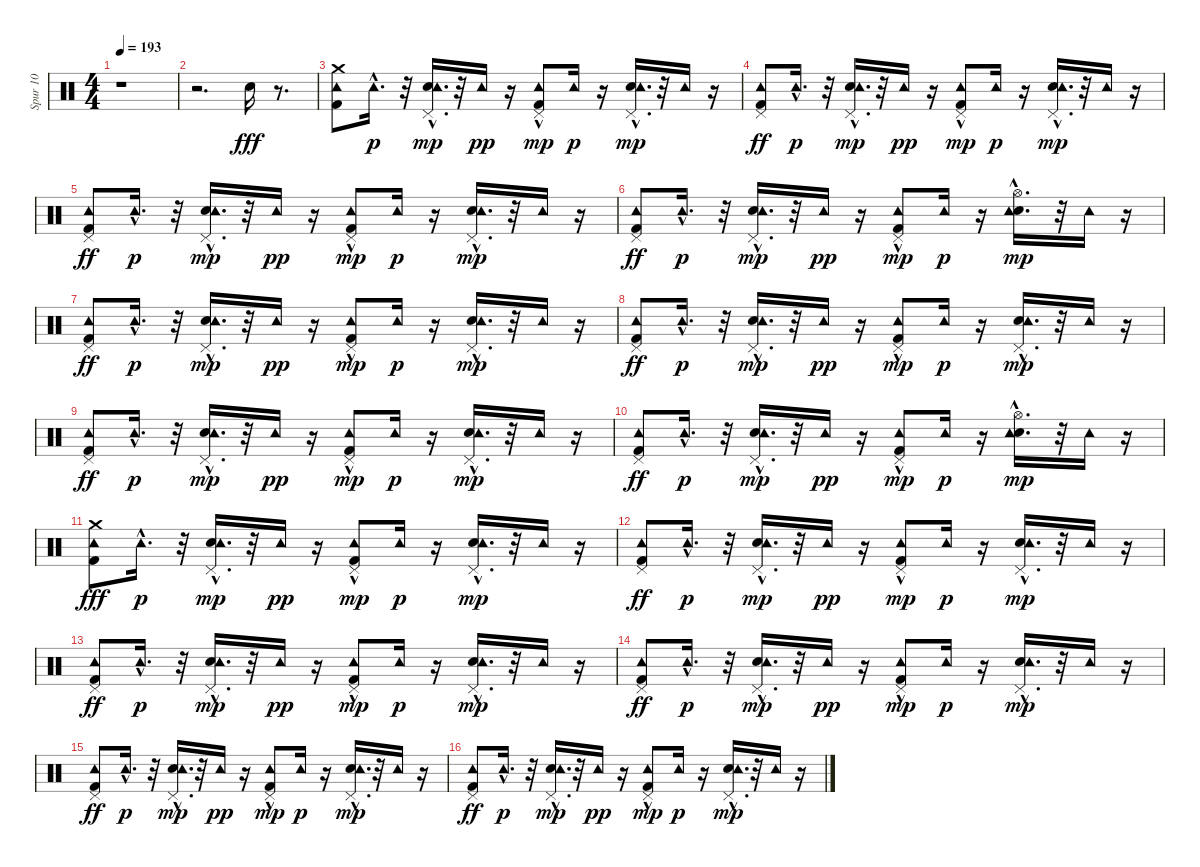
\track ("Spur 10" "Spur 10") {instrument percussion}
\staff {score}
\articulation defaults
\ts (4 4)
\tempo 193
\clef neutral
\ks c
r.1{dy fff} |
r.2{d} "Snare (hit) 2".16 r.8{d} |
("Tambourine (hit)" "Kick (hit) 2" "Crash medium (hit)").8 "Tambourine (hit)"{hac}.16{d dy p} r.32 ("Pedal Hi-Hat (hit)" "Snare (hit) 2"{hac} "Tambourine (hit)").16{d dy mp} r.32 "Tambourine (hit)".16{dy pp} r.16 ("Kick (hit) 2" "Pedal Hi-Hat (hit)" "Tambourine (hit)"{hac}).8{dy mp} "Tambourine (hit)".16{dy p} r.16 ("Snare (hit) 2"{hac} "Pedal Hi-Hat (hit)"{hac} "Tambourine (hit)").16{d dy mp} r.32 "Tambourine (hit)".16 r.16 |
("Tambourine (hit)" "Kick (hit) 2" "Pedal Hi-Hat (hit)").8{dy ff} "Tambourine (hit)"{hac}.16{d dy p} r.32 ("Pedal Hi-Hat (hit)" "Snare (hit) 2"{hac} "Tambourine (hit)").16{d dy mp} r.32 "Tambourine (hit)".16{dy pp} r.16 ("Kick (hit) 2" "Pedal Hi-Hat (hit)" "Tambourine (hit)"{hac}).8{dy mp} "Tambourine (hit)".16{dy p} r.16 ("Snare (hit) 2"{hac} "Pedal Hi-Hat (hit)"{hac} "Tambourine (hit)").16{d dy mp} r.32 "Tambourine (hit)".16 r.16 |
("Tambourine (hit)" "Kick (hit) 2" "Pedal Hi-Hat (hit)").8{dy ff} "Tambourine (hit)"{hac}.16{d dy p} r.32 ("Pedal Hi-Hat (hit)" "Snare (hit) 2"{hac} "Tambourine (hit)").16{d dy mp} r.32 "Tambourine (hit)".16{dy pp} r.16 ("Kick (hit) 2" "Pedal Hi-Hat (hit)" "Tambourine (hit)"{hac}).8{dy mp} "Tambourine (hit)".16{dy p} r.16 ("Snare (hit) 2"{hac} "Pedal Hi-Hat (hit)"{hac} "Tambourine (hit)").16{d dy mp} r.32 "Tambourine (hit)".16 r.16 |
("Tambourine (hit)" "Kick (hit) 2" "Pedal Hi-Hat (hit)").8{dy ff} "Tambourine (hit)"{hac}.16{d dy p} r.32 ("Pedal Hi-Hat (hit)" "Snare (hit) 2"{hac} "Tambourine (hit)").16{d dy mp} r.32 "Tambourine (hit)".16{dy pp} r.16 ("Kick (hit) 2" "Pedal Hi-Hat (hit)" "Tambourine (hit)"{hac}).8{dy mp} "Tambourine (hit)".16{dy p} r.16 ("Snare (hit) 2"{hac} "Hi-Hat (open)"{hac} "Tambourine (hit)").16{d dy mp} r.32 "Tambourine (hit)".16 r.16 |
("Tambourine (hit)" "Kick (hit) 2" "Pedal Hi-Hat (hit)").8{dy ff} "Tambourine (hit)"{hac}.16{d dy p} r.32 ("Pedal Hi-Hat (hit)" "Snare (hit) 2"{hac} "Tambourine (hit)").16{d dy mp} r.32 "Tambourine (hit)".16{dy pp} r.16 ("Kick (hit) 2" "Pedal Hi-Hat (hit)" "Tambourine (hit)"{hac}).8{dy mp} "Tambourine (hit)".16{dy p} r.16 ("Snare (hit) 2"{hac} "Pedal Hi-Hat (hit)"{hac} "Tambourine (hit)").16{d dy mp} r.32 "Tambourine (hit)".16 r.16 |
("Tambourine (hit)" "Kick (hit) 2" "Pedal Hi-Hat (hit)").8{dy ff} "Tambourine (hit)"{hac}.16{d dy p} r.32 ("Pedal Hi-Hat (hit)" "Snare (hit) 2"{hac} "Tambourine (hit)").16{d dy mp} r.32 "Tambourine (hit)".16{dy pp} r.16 ("Kick (hit) 2" "Pedal Hi-Hat (hit)" "Tambourine (hit)"{hac}).8{dy mp} "Tambourine (hit)".16{dy p} r.16 ("Snare (hit) 2"{hac} "Pedal Hi-Hat (hit)"{hac} "Tambourine (hit)").16{d dy mp} r.32 "Tambourine (hit)".16 r.16 |
("Tambourine (hit)" "Kick (hit) 2" "Pedal Hi-Hat (hit)").8{dy ff} "Tambourine (hit)"{hac}.16{d dy p} r.32 ("Pedal Hi-Hat (hit)" "Snare (hit) 2"{hac} "Tambourine (hit)").16{d dy mp} r.32 "Tambourine (hit)".16{dy pp} r.16 ("Kick (hit) 2" "Pedal Hi-Hat (hit)" "Tambourine (hit)"{hac}).8{dy mp} "Tambourine (hit)".16{dy p} r.16 ("Snare (hit) 2"{hac} "Pedal Hi-Hat (hit)"{hac} "Tambourine (hit)").16{d dy mp} r.32 "Tambourine (hit)".16 r.16 |
("Tambourine (hit)" "Kick (hit) 2" "Pedal Hi-Hat (hit)").8{dy ff} "Tambourine (hit)"{hac}.16{d dy p} r.32 ("Pedal Hi-Hat (hit)" "Snare (hit) 2"{hac} "Tambourine (hit)").16{d dy mp} r.32 "Tambourine (hit)".16{dy pp} r.16 ("Kick (hit) 2" "Pedal Hi-Hat (hit)" "Tambourine (hit)"{hac}).8{dy mp} "Tambourine (hit)".16{dy p} r.16 ("Snare (hit) 2"{hac} "Hi-Hat (open)"{hac} "Tambourine (hit)").16{d dy mp} r.32 "Tambourine (hit)".16 r.16 |
("Tambourine (hit)" "Kick (hit) 2" "Crash medium (hit)").8{dy fff} "Tambourine (hit)"{hac}.16{d dy p} r.32 ("Pedal Hi-Hat (hit)" "Snare (hit) 2"{hac} "Tambourine (hit)").16{d dy mp} r.32 "Tambourine (hit)".16{dy pp} r.16 ("Kick (hit) 2" "Pedal Hi-Hat (hit)" "Tambourine (hit)"{hac}).8{dy mp} "Tambourine (hit)".16{dy p} r.16 ("Snare (hit) 2"{hac} "Pedal Hi-Hat (hit)"{hac} "Tambourine (hit)").16{d dy mp} r.32 "Tambourine (hit)".16 r.16 |
("Tambourine (hit)" "Kick (hit) 2" "Pedal Hi-Hat (hit)").8{dy ff} "Tambourine (hit)"{hac}.16{d dy p} r.32 ("Pedal Hi-Hat (hit)" "Snare (hit) 2"{hac} "Tambourine (hit)").16{d dy mp} r.32 "Tambourine (hit)".16{dy pp} r.16 ("Kick (hit) 2" "Pedal Hi-Hat (hit)" "Tambourine (hit)"{hac}).8{dy mp} "Tambourine (hit)".16{dy p} r.16 ("Snare (hit) 2"{hac} "Pedal Hi-Hat (hit)"{hac} "Tambourine (hit)").16{d dy mp} r.32 "Tambourine (hit)".16 r.16 |
("Tambourine (hit)" "Kick (hit) 2" "Pedal Hi-Hat (hit)").8{dy ff} "Tambourine (hit)"{hac}.16{d dy p} r.32 ("Pedal Hi-Hat (hit)" "Snare (hit) 2"{hac} "Tambourine (hit)").16{d dy mp} r.32 "Tambourine (hit)".16{dy pp} r.16 ("Kick (hit) 2" "Pedal Hi-Hat (hit)" "Tambourine (hit)"{hac}).8{dy mp} "Tambourine (hit)".16{dy p} r.16 ("Snare (hit) 2"{hac} "Pedal Hi-Hat (hit)"{hac} "Tambourine (hit)").16{d dy mp} r.32 "Tambourine (hit)".16 r.16 |
("Tambourine (hit)" "Kick (hit) 2" "Pedal Hi-Hat (hit)").8{dy ff} "Tambourine (hit)"{hac}.16{d dy p} r.32 ("Pedal Hi-Hat (hit)" "Snare (hit) 2"{hac} "Tambourine (hit)").16{d dy mp} r.32 "Tambourine (hit)".16{dy pp} r.16 ("Kick (hit) 2" "Pedal Hi-Hat (hit)" "Tambourine (hit)"{hac}).8{dy mp} "Tambourine (hit)".16{dy p} r.16 ("Snare (hit) 2"{hac} "Pedal Hi-Hat (hit)"{hac} "Tambourine (hit)").16{d dy mp} r.32 "Tambourine (hit)".16 r.16 |
("Tambourine (hit)" "Kick (hit) 2" "Pedal Hi-Hat (hit)").8{dy ff} "Tambourine (hit)"{hac}.16{d dy p} r.32 ("Pedal Hi-Hat (hit)" "Snare (hit) 2"{hac} "Tambourine (hit)").16{d dy mp} r.32 "Tambourine (hit)".16{dy pp} r.16 ("Kick (hit) 2" "Pedal Hi-Hat (hit)" "Tambourine (hit)"{hac}).8{dy mp} "Tambourine (hit)".16{dy p} r.16 ("Snare (hit) 2"{hac} "Pedal Hi-Hat (hit)"{hac} "Tambourine (hit)").16{d dy mp} r.32 "Tambourine (hit)".16 r.16 |
("Tambourine (hit)" "Kick (hit) 2" "Pedal Hi-Hat (hit)").8{dy ff} "Tambourine (hit)"{hac}.16{d dy p} r.32 ("Pedal Hi-Hat (hit)" "Snare (hit) 2"{hac} "Tambourine (hit)").16{d dy mp} r.32 "Tambourine (hit)".16{dy pp} r.16 ("Kick (hit) 2" "Pedal Hi-Hat (hit)" "Tambourine (hit)"{hac}).8{dy mp} "Tambourine (hit)".16{dy p} r.16 ("Snare (hit) 2"{hac} "Pedal Hi-Hat (hit)"{hac} "Tambourine (hit)").16{d dy mp} r.32 "Tambourine (hit)".16 r.16
